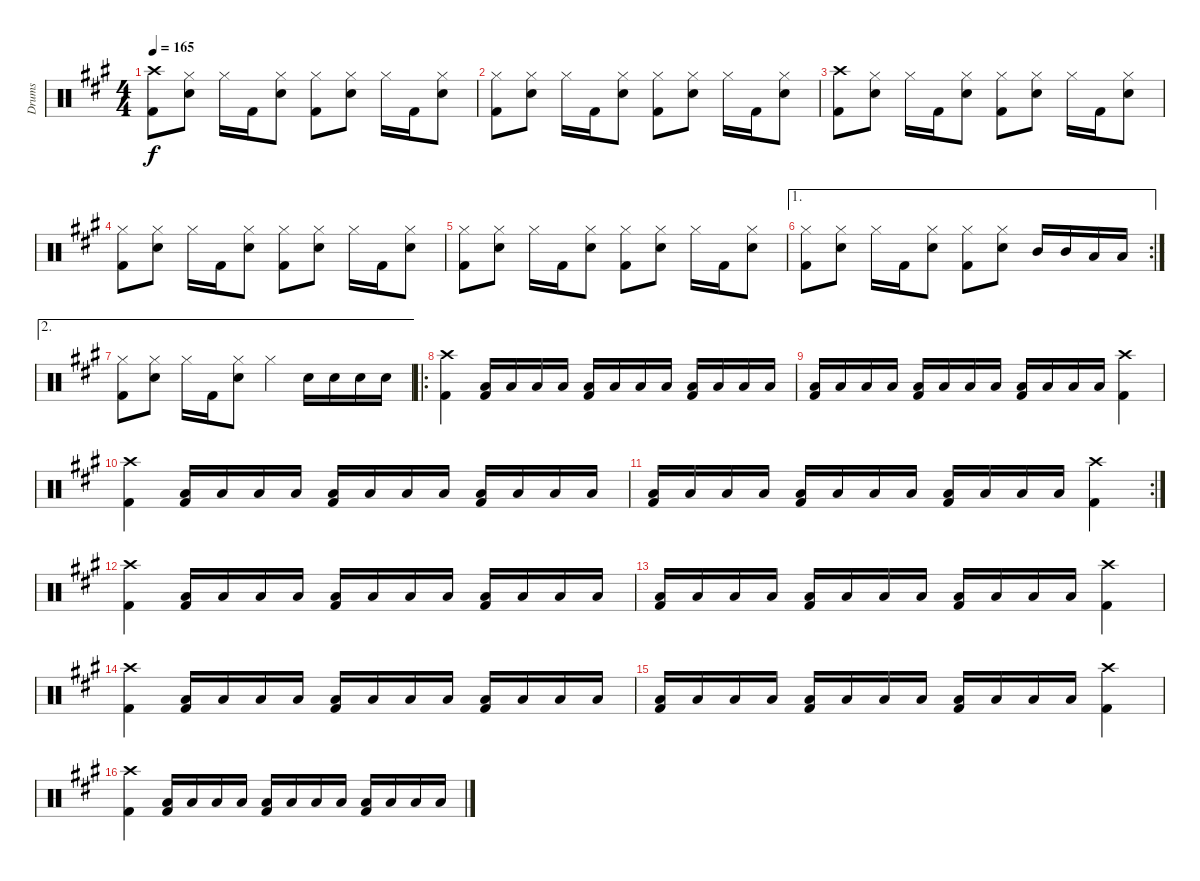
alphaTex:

\track ("Drums" "Drums") {instrument percussion}
\staff {score}
\articulation defaults
\ts (4 4)
\tempo 165
\clef neutral
\ks a
("Crash high (hit)" "Kick (hit) 2").8{dy f} ("Hi-Hat (closed)" "Snare (hit) 2").8 "Hi-Hat (closed)".16 "Kick (hit) 2".16 ("Hi-Hat (closed)" "Snare (hit) 2").8 ("Hi-Hat (closed)" "Kick (hit) 2").8 ("Hi-Hat (closed)" "Snare (hit) 2").8 "Hi-Hat (closed)".16 "Kick (hit) 2".16 ("Hi-Hat (closed)" "Snare (hit) 2").8 |
("Hi-Hat (closed)" "Kick (hit) 2").8 ("Hi-Hat (closed)" "Snare (hit) 2").8 "Hi-Hat (closed)".16 "Kick (hit) 2".16 ("Hi-Hat (closed)" "Snare (hit) 2").8 ("Hi-Hat (closed)" "Kick (hit) 2").8 ("Hi-Hat (closed)" "Snare (hit) 2").8 "Hi-Hat (closed)".16 "Kick (hit) 2".16 ("Hi-Hat (closed)" "Snare (hit) 2").8 |
("Crash high (hit)" "Kick (hit) 2").8 ("Hi-Hat (closed)" "Snare (hit) 2").8 "Hi-Hat (closed)".16 "Kick (hit) 2".16 ("Hi-Hat (closed)" "Snare (hit) 2").8 ("Hi-Hat (closed)" "Kick (hit) 2").8 ("Hi-Hat (closed)" "Snare (hit) 2").8 "Hi-Hat (closed)".16 "Kick (hit) 2".16 ("Hi-Hat (closed)" "Snare (hit) 2").8 |
("Hi-Hat (closed)" "Kick (hit) 2").8 ("Hi-Hat (closed)" "Snare (hit) 2").8 "Hi-Hat (closed)".16 "Kick (hit) 2".16 ("Hi-Hat (closed)" "Snare (hit) 2").8 ("Hi-Hat (closed)" "Kick (hit) 2").8 ("Hi-Hat (closed)" "Snare (hit) 2").8 "Hi-Hat (closed)".16 "Kick (hit) 2".16 ("Hi-Hat (closed)" "Snare (hit) 2").8 |
("Hi-Hat (closed)" "Kick (hit) 2").8 ("Hi-Hat (closed)" "Snare (hit) 2").8 "Hi-Hat (closed)".16 "Kick (hit) 2".16 ("Hi-Hat (closed)" "Snare (hit) 2").8 ("Hi-Hat (closed)" "Kick (hit) 2").8 ("Hi-Hat (closed)" "Snare (hit) 2").8 "Hi-Hat (closed)".16 "Kick (hit) 2".16 ("Hi-Hat (closed)" "Snare (hit) 2").8 |
\ae 1
\rc 2
("Hi-Hat (closed)" "Kick (hit) 2").8 ("Hi-Hat (closed)" "Snare (hit) 2").8 "Hi-Hat (closed)".16 "Kick (hit) 2".16 ("Hi-Hat (closed)" "Snare (hit) 2").8 ("Hi-Hat (closed)" "Kick (hit) 2").8 ("Hi-Hat (closed)" "Snare (hit) 2").8 "Mid Tom (hit)".16 "Mid Tom (hit)".16 "Low Tom (hit)".16 "Low Tom (hit)".16 |
\ae 2
("Hi-Hat (closed)" "Kick (hit) 2").8 ("Hi-Hat (closed)" "Snare (hit) 2").8 "Hi-Hat (closed)".16 "Kick (hit) 2".16 ("Hi-Hat (closed)" "Snare (hit) 2").8 "Hi-Hat (closed)".4 "Snare (hit) 2".16 "Snare (hit) 2".16 "Snare (hit) 2".16 "Snare (hit) 2".16 |
\ro
("Crash high (hit)" "Kick (hit) 2").4 ("Low Floor Tom (hit)" "Kick (hit) 2").16 "Low Floor Tom (hit)".16 "Low Floor Tom (hit)".16 "Low Floor Tom (hit)".16 ("Low Floor Tom (hit)" "Kick (hit) 2").16 "Low Floor Tom (hit)".16 "Low Floor Tom (hit)".16 "Low Floor Tom (hit)".16 ("Low Floor Tom (hit)" "Kick (hit) 2").16 "Low Floor Tom (hit)".16 "Low Floor Tom (hit)".16 "Low Floor Tom (hit)".16 |
("Low Floor Tom (hit)" "Kick (hit) 2").16 "Low Floor Tom (hit)".16 "Low Floor Tom (hit)".16 "Low Floor Tom (hit)".16 ("Low Floor Tom (hit)" "Kick (hit) 2").16 "Low Floor Tom (hit)".16 "Low Floor Tom (hit)".16 "Low Floor Tom (hit)".16 ("Low Floor Tom (hit)" "Kick (hit) 2").16 "Low Floor Tom (hit)".16 "Low Floor Tom (hit)".16 "Low Floor Tom (hit)".16 ("Crash high (hit)" "Kick (hit) 2").4 |
("Crash high (hit)" "Kick (hit) 2").4 ("Low Floor Tom (hit)" "Kick (hit) 2").16 "Low Floor Tom (hit)".16 "Low Floor Tom (hit)".16 "Low Floor Tom (hit)".16 ("Low Floor Tom (hit)" "Kick (hit) 2").16 "Low Floor Tom (hit)".16 "Low Floor Tom (hit)".16 "Low Floor Tom (hit)".16 ("Low Floor Tom (hit)" "Kick (hit) 2").16 "Low Floor Tom (hit)".16 "Low Floor Tom (hit)".16 "Low Floor Tom (hit)".16 |
\rc 2
("Low Floor Tom (hit)" "Kick (hit) 2").16 "Low Floor Tom (hit)".16 "Low Floor Tom (hit)".16 "Low Floor Tom (hit)".16 ("Low Floor Tom (hit)" "Kick (hit) 2").16 "Low Floor Tom (hit)".16 "Low Floor Tom (hit)".16 "Low Floor Tom (hit)".16 ("Low Floor Tom (hit)" "Kick (hit) 2").16 "Low Floor Tom (hit)".16 "Low Floor Tom (hit)".16 "Low Floor Tom (hit)".16 ("Crash high (hit)" "Kick (hit) 2").4 |
("Crash high (hit)" "Kick (hit) 2").4 ("Low Floor Tom (hit)" "Kick (hit) 2").16 "Low Floor Tom (hit)".16 "Low Floor Tom (hit)".16 "Low Floor Tom (hit)".16 ("Low Floor Tom (hit)" "Kick (hit) 2").16 "Low Floor Tom (hit)".16 "Low Floor Tom (hit)".16 "Low Floor Tom (hit)".16 ("Low Floor Tom (hit)" "Kick (hit) 2").16 "Low Floor Tom (hit)".16 "Low Floor Tom (hit)".16 "Low Floor Tom (hit)".16 |
("Low Floor Tom (hit)" "Kick (hit) 2").16 "Low Floor Tom (hit)".16 "Low Floor Tom (hit)".16 "Low Floor Tom (hit)".16 ("Low Floor Tom (hit)" "Kick (hit) 2").16 "Low Floor Tom (hit)".16 "Low Floor Tom (hit)".16 "Low Floor Tom (hit)".16 ("Low Floor Tom (hit)" "Kick (hit) 2").16 "Low Floor Tom (hit)".16 "Low Floor Tom (hit)".16 "Low Floor Tom (hit)".16 ("Crash high (hit)" "Kick (hit) 2").4 |
("Crash high (hit)" "Kick (hit) 2").4 ("Low Floor Tom (hit)" "Kick (hit) 2").16 "Low Floor Tom (hit)".16 "Low Floor Tom (hit)".16 "Low Floor Tom (hit)".16 ("Low Floor Tom (hit)" "Kick (hit) 2").16 "Low Floor Tom (hit)".16 "Low Floor Tom (hit)".16 "Low Floor Tom (hit)".16 ("Low Floor Tom (hit)" "Kick (hit) 2").16 "Low Floor Tom (hit)".16 "Low Floor Tom (hit)".16 "Low Floor Tom (hit)".16 |
("Low Floor Tom (hit)" "Kick (hit) 2").16 "Low Floor Tom (hit)".16 "Low Floor Tom (hit)".16 "Low Floor Tom (hit)".16 ("Low Floor Tom (hit)" "Kick (hit) 2").16 "Low Floor Tom (hit)".16 "Low Floor Tom (hit)".16 "Low Floor Tom (hit)".16 ("Low Floor Tom (hit)" "Kick (hit) 2").16 "Low Floor Tom (hit)".16 "Low Floor Tom (hit)".16 "Low Floor Tom (hit)".16 ("Crash high (hit)" "Kick (hit) 2").4 |
("Crash high (hit)" "Kick (hit) 2").4 ("Low Floor Tom (hit)" "Kick (hit) 2").16 "Low Floor Tom (hit)".16 "Low Floor Tom (hit)".16 "Low Floor Tom (hit)".16 ("Low Floor Tom (hit)" "Kick (hit) 2").16 "Low Floor Tom (hit)".16 "Low Floor Tom (hit)".16 "Low Floor Tom (hit)".16 ("Low Floor Tom (hit)" "Kick (hit) 2").16 "Low Floor Tom (hit)".16 "Low Floor Tom (hit)".16 "Low Floor Tom (hit)".16
